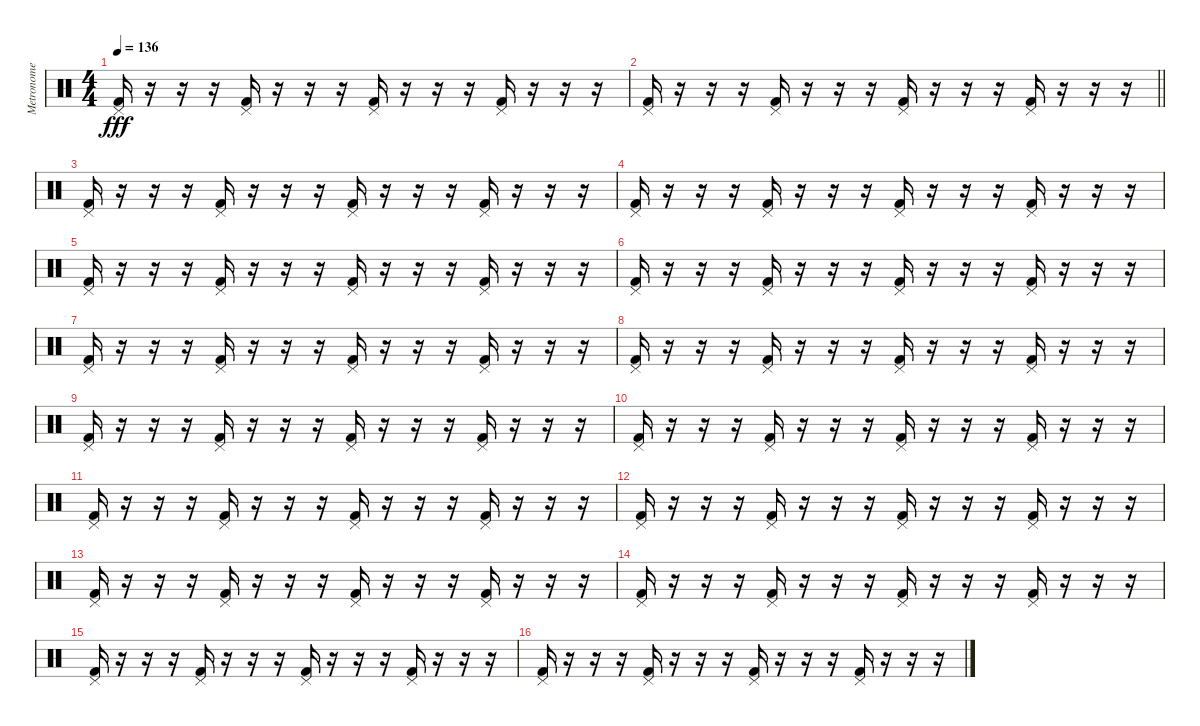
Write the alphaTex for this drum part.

\track ("Metronome" "Metronome") {mute instrument percussion}
\staff {score}
\articulation defaults
\ts (4 4)
\tempo 136
\clef neutral
\ks c
("Pedal Hi-Hat (hit)" "Kick (hit) 2").16{dy fff} r.16 r.16 r.16 ("Pedal Hi-Hat (hit)" "Kick (hit) 2").16 r.16 r.16 r.16 ("Pedal Hi-Hat (hit)" "Kick (hit) 2").16 r.16 r.16 r.16 ("Pedal Hi-Hat (hit)" "Kick (hit) 2").16 r.16 r.16 r.16 |
\barLineRight lightlight
("Pedal Hi-Hat (hit)" "Kick (hit) 2").16 r.16 r.16 r.16 ("Pedal Hi-Hat (hit)" "Kick (hit) 2").16 r.16 r.16 r.16 ("Pedal Hi-Hat (hit)" "Kick (hit) 2").16 r.16 r.16 r.16 ("Pedal Hi-Hat (hit)" "Kick (hit) 2").16 r.16 r.16 r.16 |
("Pedal Hi-Hat (hit)" "Kick (hit) 2").16 r.16 r.16 r.16 ("Pedal Hi-Hat (hit)" "Kick (hit) 2").16 r.16 r.16 r.16 ("Pedal Hi-Hat (hit)" "Kick (hit) 2").16 r.16 r.16 r.16 ("Pedal Hi-Hat (hit)" "Kick (hit) 2").16 r.16 r.16 r.16 |
("Pedal Hi-Hat (hit)" "Kick (hit) 2").16 r.16 r.16 r.16 ("Pedal Hi-Hat (hit)" "Kick (hit) 2").16 r.16 r.16 r.16 ("Pedal Hi-Hat (hit)" "Kick (hit) 2").16 r.16 r.16 r.16 ("Pedal Hi-Hat (hit)" "Kick (hit) 2").16 r.16 r.16 r.16 |
("Pedal Hi-Hat (hit)" "Kick (hit) 2").16 r.16 r.16 r.16 ("Pedal Hi-Hat (hit)" "Kick (hit) 2").16 r.16 r.16 r.16 ("Pedal Hi-Hat (hit)" "Kick (hit) 2").16 r.16 r.16 r.16 ("Pedal Hi-Hat (hit)" "Kick (hit) 2").16 r.16 r.16 r.16 |
("Pedal Hi-Hat (hit)" "Kick (hit) 2").16 r.16 r.16 r.16 ("Pedal Hi-Hat (hit)" "Kick (hit) 2").16 r.16 r.16 r.16 ("Pedal Hi-Hat (hit)" "Kick (hit) 2").16 r.16 r.16 r.16 ("Pedal Hi-Hat (hit)" "Kick (hit) 2").16 r.16 r.16 r.16 |
("Pedal Hi-Hat (hit)" "Kick (hit) 2").16 r.16 r.16 r.16 ("Pedal Hi-Hat (hit)" "Kick (hit) 2").16 r.16 r.16 r.16 ("Pedal Hi-Hat (hit)" "Kick (hit) 2").16 r.16 r.16 r.16 ("Pedal Hi-Hat (hit)" "Kick (hit) 2").16 r.16 r.16 r.16 |
("Pedal Hi-Hat (hit)" "Kick (hit) 2").16 r.16 r.16 r.16 ("Pedal Hi-Hat (hit)" "Kick (hit) 2").16 r.16 r.16 r.16 ("Pedal Hi-Hat (hit)" "Kick (hit) 2").16 r.16 r.16 r.16 ("Pedal Hi-Hat (hit)" "Kick (hit) 2").16 r.16 r.16 r.16 |
("Pedal Hi-Hat (hit)" "Kick (hit) 2").16 r.16 r.16 r.16 ("Pedal Hi-Hat (hit)" "Kick (hit) 2").16 r.16 r.16 r.16 ("Pedal Hi-Hat (hit)" "Kick (hit) 2").16 r.16 r.16 r.16 ("Pedal Hi-Hat (hit)" "Kick (hit) 2").16 r.16 r.16 r.16 |
("Pedal Hi-Hat (hit)" "Kick (hit) 2").16 r.16 r.16 r.16 ("Pedal Hi-Hat (hit)" "Kick (hit) 2").16 r.16 r.16 r.16 ("Pedal Hi-Hat (hit)" "Kick (hit) 2").16 r.16 r.16 r.16 ("Pedal Hi-Hat (hit)" "Kick (hit) 2").16 r.16 r.16 r.16 |
("Pedal Hi-Hat (hit)" "Kick (hit) 2").16 r.16 r.16 r.16 ("Pedal Hi-Hat (hit)" "Kick (hit) 2").16 r.16 r.16 r.16 ("Pedal Hi-Hat (hit)" "Kick (hit) 2").16 r.16 r.16 r.16 ("Pedal Hi-Hat (hit)" "Kick (hit) 2").16 r.16 r.16 r.16 |
("Pedal Hi-Hat (hit)" "Kick (hit) 2").16 r.16 r.16 r.16 ("Pedal Hi-Hat (hit)" "Kick (hit) 2").16 r.16 r.16 r.16 ("Pedal Hi-Hat (hit)" "Kick (hit) 2").16 r.16 r.16 r.16 ("Pedal Hi-Hat (hit)" "Kick (hit) 2").16 r.16 r.16 r.16 |
("Pedal Hi-Hat (hit)" "Kick (hit) 2").16 r.16 r.16 r.16 ("Pedal Hi-Hat (hit)" "Kick (hit) 2").16 r.16 r.16 r.16 ("Pedal Hi-Hat (hit)" "Kick (hit) 2").16 r.16 r.16 r.16 ("Pedal Hi-Hat (hit)" "Kick (hit) 2").16 r.16 r.16 r.16 |
("Pedal Hi-Hat (hit)" "Kick (hit) 2").16 r.16 r.16 r.16 ("Pedal Hi-Hat (hit)" "Kick (hit) 2").16 r.16 r.16 r.16 ("Pedal Hi-Hat (hit)" "Kick (hit) 2").16 r.16 r.16 r.16 ("Pedal Hi-Hat (hit)" "Kick (hit) 2").16 r.16 r.16 r.16 |
("Pedal Hi-Hat (hit)" "Kick (hit) 2").16 r.16 r.16 r.16 ("Pedal Hi-Hat (hit)" "Kick (hit) 2").16 r.16 r.16 r.16 ("Pedal Hi-Hat (hit)" "Kick (hit) 2").16 r.16 r.16 r.16 ("Pedal Hi-Hat (hit)" "Kick (hit) 2").16 r.16 r.16 r.16 |
("Pedal Hi-Hat (hit)" "Kick (hit) 2").16 r.16 r.16 r.16 ("Pedal Hi-Hat (hit)" "Kick (hit) 2").16 r.16 r.16 r.16 ("Pedal Hi-Hat (hit)" "Kick (hit) 2").16 r.16 r.16 r.16 ("Pedal Hi-Hat (hit)" "Kick (hit) 2").16 r.16 r.16 r.16
